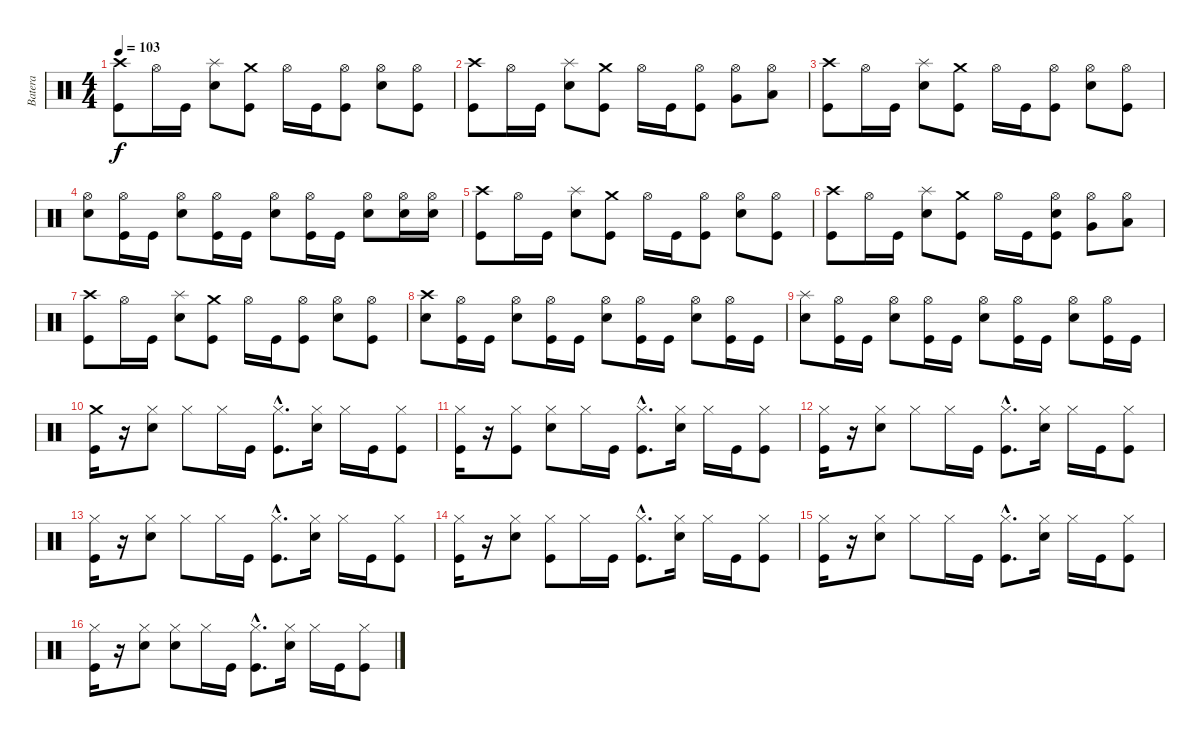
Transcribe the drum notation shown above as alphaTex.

\track ("Batera" "Batera") {instrument percussion}
\staff {score}
\articulation defaults
\ts (4 4)
\tempo 103
\clef neutral
\ks c
("Crash high (hit)" "Kick (hit)").8{dy f} "Hi-Hat (open)".16 "Kick (hit)".16 ("Splash (hit)" "Snare (hit) 2").8 ("Crash medium (hit)" "Kick (hit)").8 "Hi-Hat (open)".16 "Kick (hit)".16 ("Hi-Hat (open)" "Kick (hit)").8 ("Hi-Hat (open)" "Snare (hit) 2").8 ("Hi-Hat (open)" "Kick (hit)").8 |
("Crash high (hit)" "Kick (hit)").8 "Hi-Hat (open)".16 "Kick (hit)".16 ("Splash (hit)" "Snare (hit) 2").8 ("Crash medium (hit)" "Kick (hit)").8 "Hi-Hat (open)".16 "Kick (hit)".16 ("Hi-Hat (open)" "Kick (hit)").8 ("Hi-Hat (open)" "Very Low Tom (hit)").8 ("Hi-Hat (open)" "Low Floor Tom (hit)").8 |
("Crash high (hit)" "Kick (hit)").8 "Hi-Hat (open)".16 "Kick (hit)".16 ("Splash (hit)" "Snare (hit) 2").8 ("Crash medium (hit)" "Kick (hit)").8 "Hi-Hat (open)".16 "Kick (hit)".16 ("Hi-Hat (open)" "Kick (hit)").8 ("Hi-Hat (open)" "Snare (hit) 2").8 ("Hi-Hat (open)" "Kick (hit)").8 |
("Hi-Hat (open)" "Snare (hit) 2").8 ("Hi-Hat (open)" "Kick (hit)").16 "Kick (hit)".16 ("Hi-Hat (open)" "Snare (hit) 2").8 ("Hi-Hat (open)" "Kick (hit)").16 "Kick (hit)".16 ("Hi-Hat (open)" "Snare (hit) 2").8 ("Hi-Hat (open)" "Kick (hit)").16 "Kick (hit)".16 ("Hi-Hat (open)" "Snare (hit) 2").8 ("Hi-Hat (open)" "Snare (hit) 2").16 ("Hi-Hat (open)" "Snare (hit) 2").16 |
("Crash high (hit)" "Kick (hit)").8 "Hi-Hat (open)".16 "Kick (hit)".16 ("Splash (hit)" "Snare (hit) 2").8 ("Crash medium (hit)" "Kick (hit)").8 "Hi-Hat (open)".16 "Kick (hit)".16 ("Hi-Hat (open)" "Kick (hit)").8 ("Hi-Hat (open)" "Snare (hit) 2").8 ("Hi-Hat (open)" "Kick (hit)").8 |
("Crash high (hit)" "Kick (hit)").8 "Hi-Hat (open)".16 "Kick (hit)".16 ("Splash (hit)" "Snare (hit) 2").8 ("Crash medium (hit)" "Kick (hit)").8 "Hi-Hat (open)".16 "Kick (hit)".16 ("Hi-Hat (open)" "Snare (hit) 2" "Kick (hit)").8 ("Hi-Hat (open)" "Very Low Tom (hit)").8 ("Hi-Hat (open)" "Low Floor Tom (hit)").8 |
("Crash high (hit)" "Kick (hit)").8 "Hi-Hat (open)".16 "Kick (hit)".16 ("Splash (hit)" "Snare (hit) 2").8 ("Crash medium (hit)" "Kick (hit)").8 "Hi-Hat (open)".16 "Kick (hit)".16 ("Hi-Hat (open)" "Kick (hit)").8 ("Hi-Hat (open)" "Snare (hit) 2").8 ("Hi-Hat (open)" "Kick (hit)").8 |
("Crash high (hit)" "Snare (hit) 2").8 ("Hi-Hat (open)" "Kick (hit)").16 "Kick (hit)".16 ("Hi-Hat (open)" "Snare (hit) 2").8 ("Hi-Hat (open)" "Kick (hit)").16 "Kick (hit)".16 ("Hi-Hat (open)" "Snare (hit) 2").8 ("Hi-Hat (open)" "Kick (hit)").16 "Kick (hit)".16 ("Hi-Hat (open)" "Snare (hit) 2").8 ("Hi-Hat (open)" "Kick (hit)").16 "Kick (hit)".16 |
("Splash (hit)" "Snare (hit) 2").8 ("Hi-Hat (open)" "Kick (hit)").16 "Kick (hit)".16 ("Hi-Hat (open)" "Snare (hit) 2").8 ("Hi-Hat (open)" "Kick (hit)").16 "Kick (hit)".16 ("Hi-Hat (open)" "Snare (hit) 2").8 ("Hi-Hat (open)" "Kick (hit)").16 "Kick (hit)".16 ("Hi-Hat (open)" "Snare (hit) 2").8 ("Hi-Hat (open)" "Kick (hit)").16 "Kick (hit)".16 |
("Crash medium (hit)" "Kick (hit)").16 r.16 ("Hi-Hat (closed)" "Snare (hit) 2").8 "Hi-Hat (closed)".8 "Hi-Hat (closed)".16 "Kick (hit)".16 ("Hi-Hat (closed)"{hac} "Kick (hit)"{hac}).8{d} ("Hi-Hat (closed)" "Snare (hit) 2").16 "Hi-Hat (closed)".16 "Kick (hit)".16 ("Hi-Hat (closed)" "Kick (hit)").8 |
("Hi-Hat (closed)" "Kick (hit)").16 r.16 ("Hi-Hat (closed)" "Kick (hit)").8 ("Hi-Hat (closed)" "Snare (hit) 2").8 "Hi-Hat (closed)".16 "Kick (hit)".16 ("Hi-Hat (closed)"{hac} "Kick (hit)"{hac}).8{d} ("Hi-Hat (closed)" "Snare (hit) 2").16 "Hi-Hat (closed)".16 "Kick (hit)".16 ("Hi-Hat (closed)" "Kick (hit)").8 |
("Hi-Hat (closed)" "Kick (hit)").16 r.16 ("Hi-Hat (closed)" "Snare (hit) 2").8 "Hi-Hat (closed)".8 "Hi-Hat (closed)".16 "Kick (hit)".16 ("Hi-Hat (closed)"{hac} "Kick (hit)"{hac}).8{d} ("Hi-Hat (closed)" "Snare (hit) 2").16 "Hi-Hat (closed)".16 "Kick (hit)".16 ("Hi-Hat (closed)" "Kick (hit)").8 |
("Hi-Hat (closed)" "Kick (hit)").16 r.16 ("Hi-Hat (closed)" "Snare (hit) 2").8 "Hi-Hat (closed)".8 "Hi-Hat (closed)".16 "Kick (hit)".16 ("Hi-Hat (closed)"{hac} "Kick (hit)"{hac}).8{d} ("Hi-Hat (closed)" "Snare (hit) 2").16 "Hi-Hat (closed)".16 "Kick (hit)".16 ("Hi-Hat (closed)" "Kick (hit)").8 |
("Hi-Hat (closed)" "Kick (hit)").16 r.16 ("Hi-Hat (closed)" "Snare (hit) 2").8 ("Hi-Hat (closed)" "Kick (hit)").8 "Hi-Hat (closed)".16 "Kick (hit)".16 ("Hi-Hat (closed)"{hac} "Kick (hit)"{hac}).8{d} ("Hi-Hat (closed)" "Snare (hit) 2").16 "Hi-Hat (closed)".16 "Kick (hit)".16 ("Hi-Hat (closed)" "Kick (hit)").8 |
("Hi-Hat (closed)" "Kick (hit)").16 r.16 ("Hi-Hat (closed)" "Snare (hit) 2").8 "Hi-Hat (closed)".8 "Hi-Hat (closed)".16 "Kick (hit)".16 ("Hi-Hat (closed)"{hac} "Kick (hit)"{hac}).8{d} ("Hi-Hat (closed)" "Snare (hit) 2").16 "Hi-Hat (closed)".16 "Kick (hit)".16 ("Hi-Hat (closed)" "Kick (hit)").8 |
("Hi-Hat (closed)" "Kick (hit)").16 r.16 ("Hi-Hat (closed)" "Snare (hit) 2").8 ("Hi-Hat (closed)" "Snare (hit) 2").8 "Hi-Hat (closed)".16 "Kick (hit)".16 ("Hi-Hat (closed)"{hac} "Kick (hit)"{hac}).8{d} ("Hi-Hat (closed)" "Snare (hit) 2").16 "Hi-Hat (closed)".16 "Kick (hit)".16 ("Hi-Hat (closed)" "Kick (hit)").8
